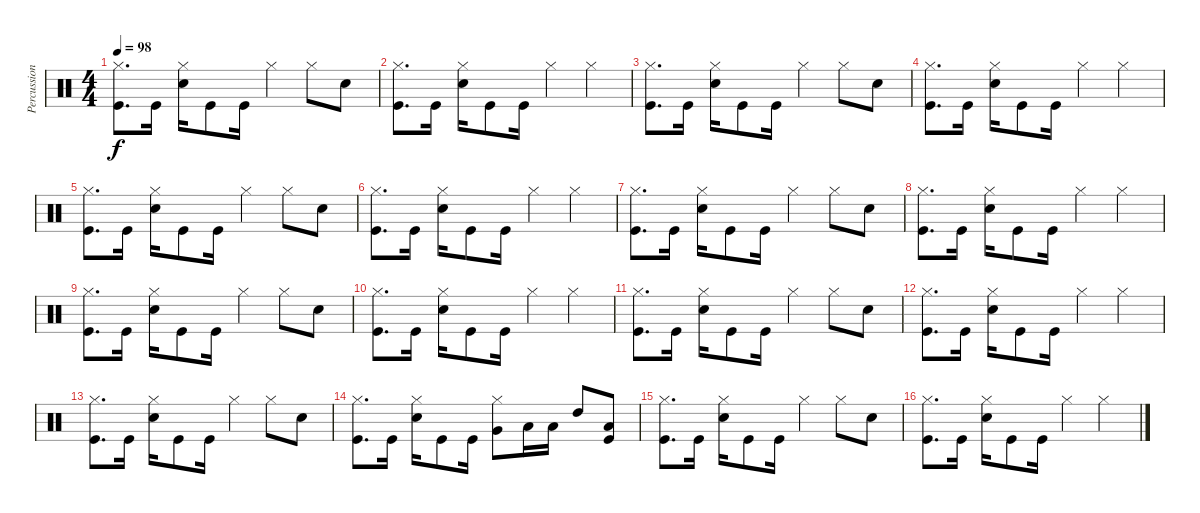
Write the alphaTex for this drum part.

\track ("Percussioni" "Percussion") {instrument percussion}
\staff {score}
\articulation defaults
\ts (4 4)
\tempo 98
\clef neutral
\ks c
("Kick (hit)" "Hi-Hat (closed)").8{d dy f} "Kick (hit)".16 ("Snare (hit) 2" "Hi-Hat (closed)").16 "Kick (hit)".8 "Kick (hit)".16 "Hi-Hat (closed)".4 "Hi-Hat (closed)".8 "Snare (hit) 2".8 |
("Kick (hit)" "Hi-Hat (closed)").8{d} "Kick (hit)".16 ("Snare (hit) 2" "Hi-Hat (closed)").16 "Kick (hit)".8 "Kick (hit)".16 "Hi-Hat (closed)".4 "Hi-Hat (closed)".4 |
("Kick (hit)" "Hi-Hat (closed)").8{d} "Kick (hit)".16 ("Snare (hit) 2" "Hi-Hat (closed)").16 "Kick (hit)".8 "Kick (hit)".16 "Hi-Hat (closed)".4 "Hi-Hat (closed)".8 "Snare (hit) 2".8 |
("Kick (hit)" "Hi-Hat (closed)").8{d} "Kick (hit)".16 ("Snare (hit) 2" "Hi-Hat (closed)").16 "Kick (hit)".8 "Kick (hit)".16 "Hi-Hat (closed)".4 "Hi-Hat (closed)".4 |
("Kick (hit)" "Hi-Hat (closed)").8{d} "Kick (hit)".16 ("Snare (hit) 2" "Hi-Hat (closed)").16 "Kick (hit)".8 "Kick (hit)".16 "Hi-Hat (closed)".4 "Hi-Hat (closed)".8 "Snare (hit) 2".8 |
("Kick (hit)" "Hi-Hat (closed)").8{d} "Kick (hit)".16 ("Snare (hit) 2" "Hi-Hat (closed)").16 "Kick (hit)".8 "Kick (hit)".16 "Hi-Hat (closed)".4 "Hi-Hat (closed)".4 |
("Kick (hit)" "Hi-Hat (closed)").8{d} "Kick (hit)".16 ("Snare (hit) 2" "Hi-Hat (closed)").16 "Kick (hit)".8 "Kick (hit)".16 "Hi-Hat (closed)".4 "Hi-Hat (closed)".8 "Snare (hit) 2".8 |
("Kick (hit)" "Hi-Hat (closed)").8{d} "Kick (hit)".16 ("Snare (hit) 2" "Hi-Hat (closed)").16 "Kick (hit)".8 "Kick (hit)".16 "Hi-Hat (closed)".4 "Hi-Hat (closed)".4 |
("Kick (hit)" "Hi-Hat (closed)").8{d} "Kick (hit)".16 ("Snare (hit) 2" "Hi-Hat (closed)").16 "Kick (hit)".8 "Kick (hit)".16 "Hi-Hat (closed)".4 "Hi-Hat (closed)".8 "Snare (hit) 2".8 |
("Kick (hit)" "Hi-Hat (closed)").8{d} "Kick (hit)".16 ("Snare (hit) 2" "Hi-Hat (closed)").16 "Kick (hit)".8 "Kick (hit)".16 "Hi-Hat (closed)".4 "Hi-Hat (closed)".4 |
("Kick (hit)" "Hi-Hat (closed)").8{d} "Kick (hit)".16 ("Snare (hit) 2" "Hi-Hat (closed)").16 "Kick (hit)".8 "Kick (hit)".16 "Hi-Hat (closed)".4 "Hi-Hat (closed)".8 "Snare (hit) 2".8 |
("Kick (hit)" "Hi-Hat (closed)").8{d} "Kick (hit)".16 ("Snare (hit) 2" "Hi-Hat (closed)").16 "Kick (hit)".8 "Kick (hit)".16 "Hi-Hat (closed)".4 "Hi-Hat (closed)".4 |
("Kick (hit)" "Hi-Hat (closed)").8{d} "Kick (hit)".16 ("Snare (hit) 2" "Hi-Hat (closed)").16 "Kick (hit)".8 "Kick (hit)".16 "Hi-Hat (closed)".4 "Hi-Hat (closed)".8 "Snare (hit) 2".8 |
("Kick (hit)" "Hi-Hat (closed)").8{d} "Kick (hit)".16 ("Snare (hit) 2" "Hi-Hat (closed)").16 "Kick (hit)".8 "Kick (hit)".16 ("Hi-Hat (closed)" "Very Low Tom (hit)").8 "Low Tom (hit)".16 "Low Tom (hit)".16 "High Tom (hit)".8 ("Low Tom (hit)" "Kick (hit)").8 |
("Kick (hit)" "Hi-Hat (closed)").8{d} "Kick (hit)".16 ("Snare (hit) 2" "Hi-Hat (closed)").16 "Kick (hit)".8 "Kick (hit)".16 "Hi-Hat (closed)".4 "Hi-Hat (closed)".8 "Snare (hit) 2".8 |
("Kick (hit)" "Hi-Hat (closed)").8{d} "Kick (hit)".16 ("Snare (hit) 2" "Hi-Hat (closed)").16 "Kick (hit)".8 "Kick (hit)".16 "Hi-Hat (closed)".4 "Hi-Hat (closed)".4
